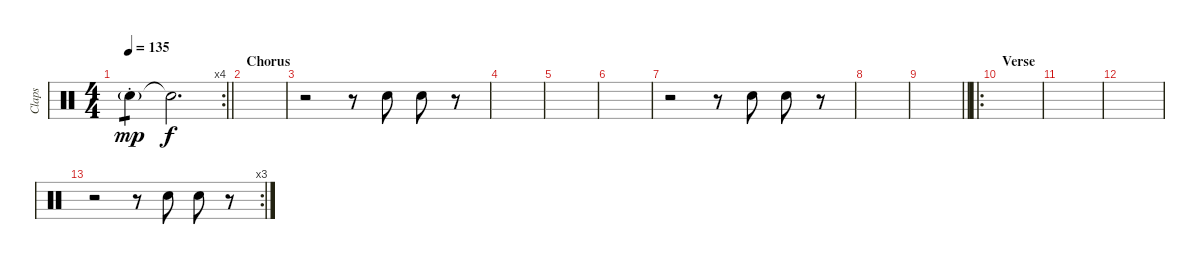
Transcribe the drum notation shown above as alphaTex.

\track ("Claps" "Claps") {instrument percussion}
\staff {score}
\articulation defaults
\rc 4
\ts (4 4)
\tempo 135
\clef neutral
\barLineRight lightlight
\ks c "Hand Clap (hit)"{g st}.4{tp 1 dy mp volume 3} "Snare (hit)"{t}.2{d dy f volume 12}
|
\section ("" "Chorus")
|
r.2 r.8 "Hand Clap (hit)".8 "Hand Clap (hit)".8 r.8 |
|
|
|
r.2 r.8 "Hand Clap (hit)".8 "Hand Clap (hit)".8 r.8 |
|
\barLineRight lightlight
|
\ro
\section ("" "Verse")
|
|
|
\rc 3
r.2 r.8 "Hand Clap (hit)".8 "Hand Clap (hit)".8 r.8
